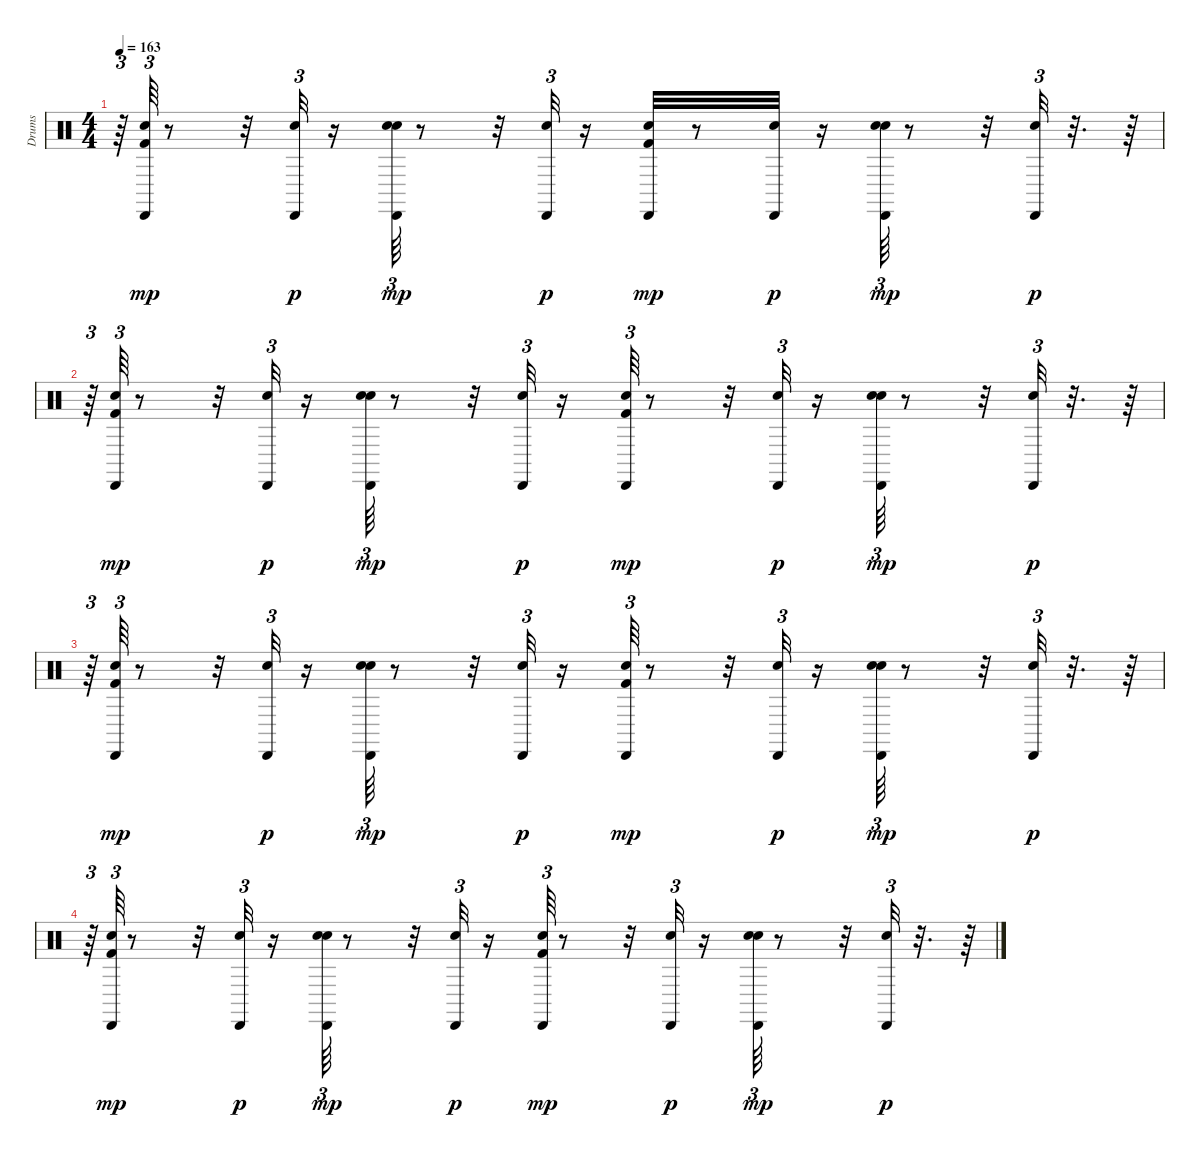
\track ("Drums               " "Drums     ") {instrument percussion}
\staff {score}
\articulation defaults
\ts (4 4)
\tempo 163
\clef neutral
\ks c
r.64{tu (3 2) dy p} ("Kick (hit) 2" "Snare (hit) 2" "Cabasa (hit)").64{tu (3 2) dy mp} r.8 r.32 ("Snare (hit) 2" "Cabasa (hit)").32{tu (3 2) dy p} r.16 ("Snare (hit) 2" "Hand Clap (hit)" "Cabasa (hit)").64{tu (3 2) dy mp} r.8 r.32 ("Snare (hit) 2" "Cabasa (hit)").32{tu (3 2) dy p} r.16 ("Kick (hit) 2" "Snare (hit) 2" "Cabasa (hit)").32{dy mp} r.8 ("Snare (hit) 2" "Cabasa (hit)").32{dy p} r.16 ("Snare (hit) 2" "Hand Clap (hit)" "Cabasa (hit)").64{tu (3 2) dy mp} r.8 r.32 ("Snare (hit) 2" "Cabasa (hit)").32{tu (3 2) dy p} r.32{d} r.64 |
r.64{tu (3 2)} ("Kick (hit) 2" "Snare (hit) 2" "Cabasa (hit)").64{tu (3 2) dy mp} r.8 r.32 ("Snare (hit) 2" "Cabasa (hit)").32{tu (3 2) dy p} r.16 ("Snare (hit) 2" "Hand Clap (hit)" "Cabasa (hit)").64{tu (3 2) dy mp} r.8 r.32 ("Snare (hit) 2" "Cabasa (hit)").32{tu (3 2) dy p} r.16 ("Kick (hit) 2" "Snare (hit) 2" "Cabasa (hit)").64{tu (3 2) dy mp} r.8 r.32 ("Snare (hit) 2" "Cabasa (hit)").32{tu (3 2) dy p} r.16 ("Snare (hit) 2" "Hand Clap (hit)" "Cabasa (hit)").64{tu (3 2) dy mp} r.8 r.32 ("Snare (hit) 2" "Cabasa (hit)").32{tu (3 2) dy p} r.32{d} r.64 |
r.64{tu (3 2)} ("Kick (hit) 2" "Snare (hit) 2" "Cabasa (hit)").64{tu (3 2) dy mp} r.8 r.32 ("Snare (hit) 2" "Cabasa (hit)").32{tu (3 2) dy p} r.16 ("Snare (hit) 2" "Hand Clap (hit)" "Cabasa (hit)").64{tu (3 2) dy mp} r.8 r.32 ("Snare (hit) 2" "Cabasa (hit)").32{tu (3 2) dy p} r.16 ("Kick (hit) 2" "Snare (hit) 2" "Cabasa (hit)").64{tu (3 2) dy mp} r.8 r.32 ("Snare (hit) 2" "Cabasa (hit)").32{tu (3 2) dy p} r.16 ("Snare (hit) 2" "Hand Clap (hit)" "Cabasa (hit)").64{tu (3 2) dy mp} r.8 r.32 ("Snare (hit) 2" "Cabasa (hit)").32{tu (3 2) dy p} r.32{d} r.64 |
r.64{tu (3 2)} ("Kick (hit) 2" "Snare (hit) 2" "Cabasa (hit)").64{tu (3 2) dy mp} r.8 r.32 ("Snare (hit) 2" "Cabasa (hit)").32{tu (3 2) dy p} r.16 ("Snare (hit) 2" "Hand Clap (hit)" "Cabasa (hit)").64{tu (3 2) dy mp} r.8 r.32 ("Snare (hit) 2" "Cabasa (hit)").32{tu (3 2) dy p} r.16 ("Kick (hit) 2" "Snare (hit) 2" "Cabasa (hit)").64{tu (3 2) dy mp} r.8 r.32 ("Snare (hit) 2" "Cabasa (hit)").32{tu (3 2) dy p} r.16 ("Snare (hit) 2" "Hand Clap (hit)" "Cabasa (hit)").64{tu (3 2) dy mp} r.8 r.32 ("Snare (hit) 2" "Cabasa (hit)").32{tu (3 2) dy p} r.32{d} r.64
